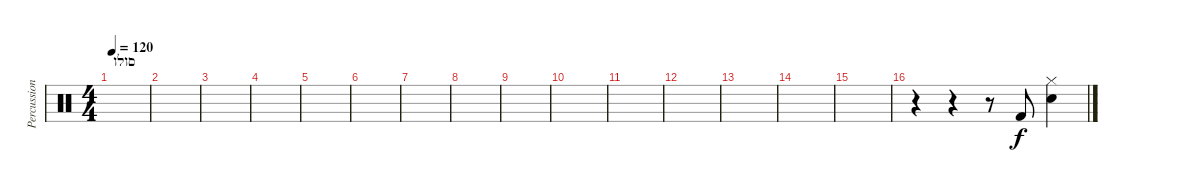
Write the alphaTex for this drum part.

\track ("Percussion" "Percussion") {instrument percussion}
\staff {score}
\articulation defaults
\ts (4 4)
\section ("" "סולו")
\tempo 120
\clef neutral
\ks c
|
|
|
|
|
|
|
|
|
|
|
|
|
|
|
r.4 r.4 r.8 "Kick (hit) 2".8 ("Hi-Hat (closed)" "Electric Snare (hit)").4
